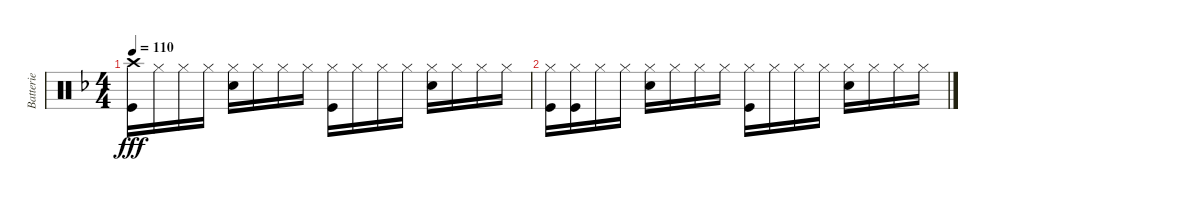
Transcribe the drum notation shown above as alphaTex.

\track ("Batterie" "Batterie") {instrument percussion}
\staff {score}
\articulation defaults
\ts (4 4)
\tempo 110
\clef neutral
\ks f
("Crash high (hit)" "Kick (hit)").16{dy fff} "Hi-Hat (closed)".16 "Hi-Hat (closed)".16 "Hi-Hat (closed)".16 ("Hi-Hat (closed)" "Snare (hit) 2").16 "Hi-Hat (closed)".16 "Hi-Hat (closed)".16 "Hi-Hat (closed)".16 ("Hi-Hat (closed)" "Kick (hit)").16 "Hi-Hat (closed)".16 "Hi-Hat (closed)".16 "Hi-Hat (closed)".16 ("Hi-Hat (closed)" "Snare (hit) 2").16 "Hi-Hat (closed)".16 "Hi-Hat (closed)".16 "Hi-Hat (closed)".16 |
("Hi-Hat (closed)" "Kick (hit)").16 ("Hi-Hat (closed)" "Kick (hit)").16 "Hi-Hat (closed)".16 "Hi-Hat (closed)".16 ("Hi-Hat (closed)" "Snare (hit) 2").16 "Hi-Hat (closed)".16 "Hi-Hat (closed)".16 "Hi-Hat (closed)".16 ("Hi-Hat (closed)" "Kick (hit)").16 "Hi-Hat (closed)".16 "Hi-Hat (closed)".16 "Hi-Hat (closed)".16 ("Hi-Hat (closed)" "Snare (hit) 2").16 "Hi-Hat (closed)".16 "Hi-Hat (closed)".16 "Hi-Hat (closed)".16
